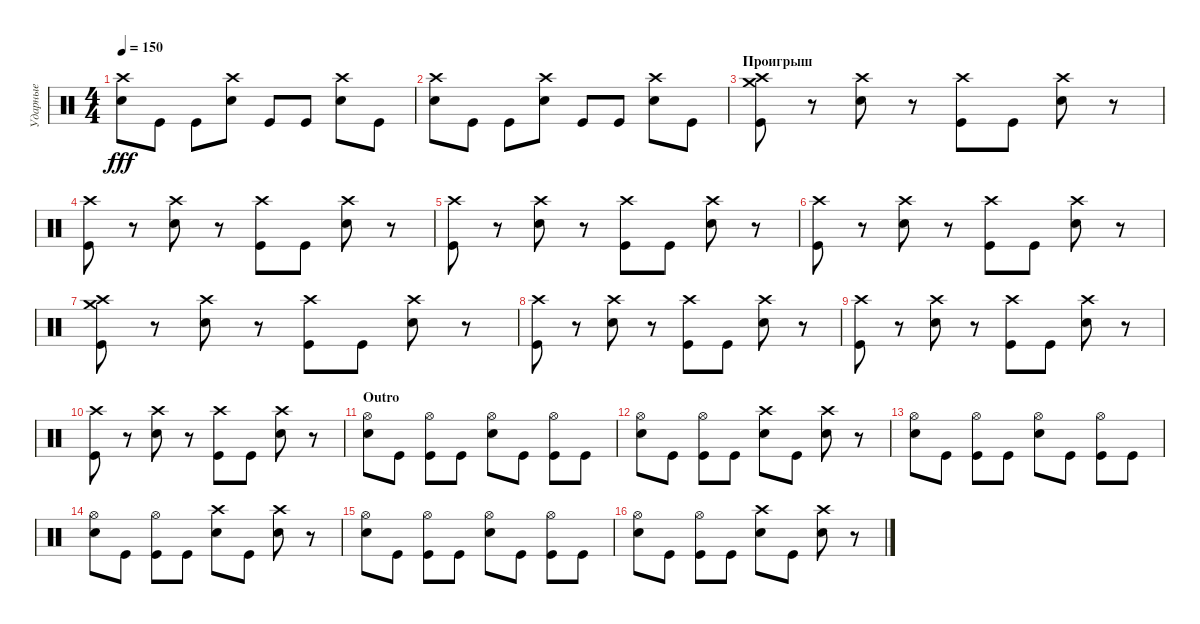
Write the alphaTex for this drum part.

\track ("Ударные" "Ударные") {instrument percussion}
\staff {score}
\articulation defaults
\ts (4 4)
\tempo 150
\clef neutral
\ks c
("Electric Snare (hit)" "Crash high (hit)").8{dy fff} "Kick (hit)".8 "Kick (hit)".8 ("Electric Snare (hit)" "Crash high (hit)").8 "Kick (hit)".8 "Kick (hit)".8 ("Electric Snare (hit)" "Crash high (hit)").8 "Kick (hit)".8 |
("Electric Snare (hit)" "Crash high (hit)").8 "Kick (hit)".8 "Kick (hit)".8 ("Electric Snare (hit)" "Crash high (hit)").8 "Kick (hit)".8 "Kick (hit)".8 ("Electric Snare (hit)" "Crash high (hit)").8 "Kick (hit)".8 |
\section ("" "Проигрыш")
("Crash medium (hit)" "Crash high (hit)" "Kick (hit)").8 r.8 ("Crash high (hit)" "Electric Snare (hit)").8 r.8 ("Crash high (hit)" "Kick (hit)").8 "Kick (hit)".8 ("Crash high (hit)" "Electric Snare (hit)").8 r.8 |
("Crash high (hit)" "Kick (hit)").8 r.8 ("Crash high (hit)" "Electric Snare (hit)").8 r.8 ("Crash high (hit)" "Kick (hit)").8 "Kick (hit)".8 ("Crash high (hit)" "Electric Snare (hit)").8 r.8 |
("Crash high (hit)" "Kick (hit)").8 r.8 ("Crash high (hit)" "Electric Snare (hit)").8 r.8 ("Crash high (hit)" "Kick (hit)").8 "Kick (hit)".8 ("Crash high (hit)" "Electric Snare (hit)").8 r.8 |
("Crash high (hit)" "Kick (hit)").8 r.8 ("Crash high (hit)" "Electric Snare (hit)").8 r.8 ("Crash high (hit)" "Kick (hit)").8 "Kick (hit)".8 ("Crash high (hit)" "Electric Snare (hit)").8 r.8 |
("Crash medium (hit)" "Crash high (hit)" "Kick (hit)").8 r.8 ("Crash high (hit)" "Electric Snare (hit)").8 r.8 ("Crash high (hit)" "Kick (hit)").8 "Kick (hit)".8 ("Crash high (hit)" "Electric Snare (hit)").8 r.8 |
("Crash high (hit)" "Kick (hit)").8 r.8 ("Crash high (hit)" "Electric Snare (hit)").8 r.8 ("Crash high (hit)" "Kick (hit)").8 "Kick (hit)".8 ("Crash high (hit)" "Electric Snare (hit)").8 r.8 |
("Crash high (hit)" "Kick (hit)").8 r.8 ("Crash high (hit)" "Electric Snare (hit)").8 r.8 ("Crash high (hit)" "Kick (hit)").8 "Kick (hit)".8 ("Crash high (hit)" "Electric Snare (hit)").8 r.8 |
("Crash high (hit)" "Kick (hit)").8 r.8 ("Crash high (hit)" "Electric Snare (hit)").8 r.8 ("Crash high (hit)" "Kick (hit)").8 "Kick (hit)".8 ("Crash high (hit)" "Electric Snare (hit)").8 r.8 |
\section ("" "Outro")
("Hi-Hat (open)" "Electric Snare (hit)").8 "Kick (hit)".8 ("Hi-Hat (open)" "Kick (hit)").8 "Kick (hit)".8 ("Hi-Hat (open)" "Electric Snare (hit)").8 "Kick (hit)".8 ("Hi-Hat (open)" "Kick (hit)").8 "Kick (hit)".8 |
("Hi-Hat (open)" "Electric Snare (hit)").8 "Kick (hit)".8 ("Hi-Hat (open)" "Kick (hit)").8 "Kick (hit)".8 ("Crash high (hit)" "Electric Snare (hit)").8 "Kick (hit)".8 ("Crash high (hit)" "Electric Snare (hit)").8 r.8 |
("Hi-Hat (open)" "Electric Snare (hit)").8 "Kick (hit)".8 ("Hi-Hat (open)" "Kick (hit)").8 "Kick (hit)".8 ("Hi-Hat (open)" "Electric Snare (hit)").8 "Kick (hit)".8 ("Hi-Hat (open)" "Kick (hit)").8 "Kick (hit)".8 |
("Hi-Hat (open)" "Electric Snare (hit)").8 "Kick (hit)".8 ("Hi-Hat (open)" "Kick (hit)").8 "Kick (hit)".8 ("Crash high (hit)" "Electric Snare (hit)").8 "Kick (hit)".8 ("Crash high (hit)" "Electric Snare (hit)").8 r.8 |
("Hi-Hat (open)" "Electric Snare (hit)").8 "Kick (hit)".8 ("Hi-Hat (open)" "Kick (hit)").8 "Kick (hit)".8 ("Hi-Hat (open)" "Electric Snare (hit)").8 "Kick (hit)".8 ("Hi-Hat (open)" "Kick (hit)").8 "Kick (hit)".8 |
("Hi-Hat (open)" "Electric Snare (hit)").8 "Kick (hit)".8 ("Hi-Hat (open)" "Kick (hit)").8 "Kick (hit)".8 ("Crash high (hit)" "Electric Snare (hit)").8 "Kick (hit)".8 ("Crash high (hit)" "Electric Snare (hit)").8 r.8
